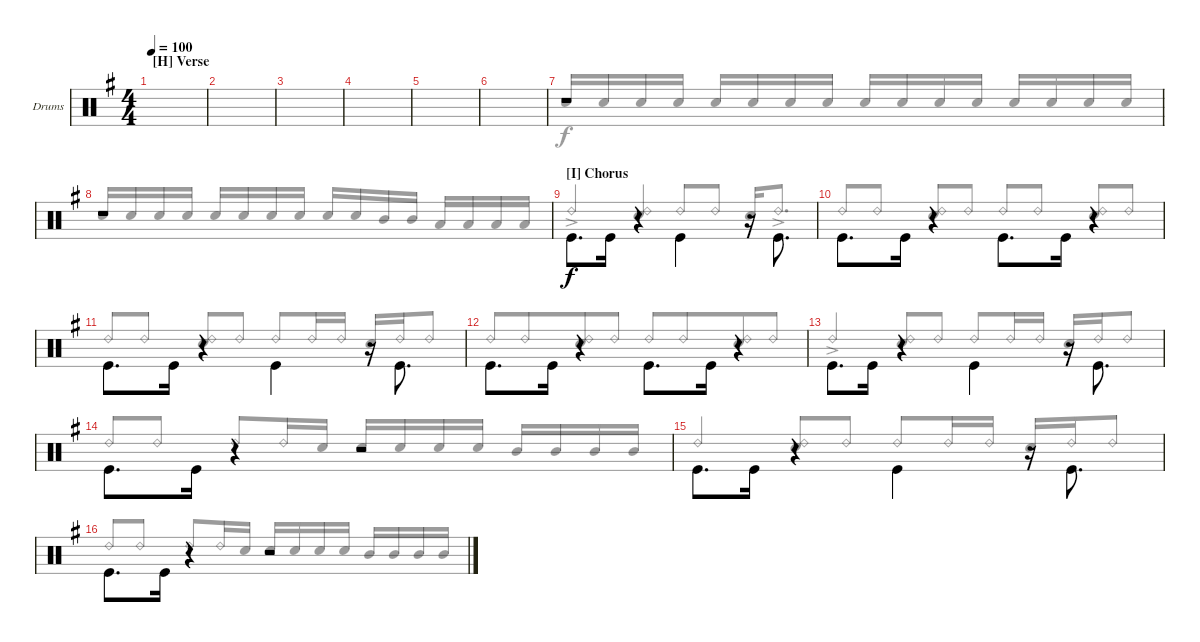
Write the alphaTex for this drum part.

\defaultSystemsLayout 4
\bracketExtendMode groupsimilarinstruments
\firstSystemTrackNameOrientation horizontal
\otherSystemsTrackNameOrientation horizontal
\track ("Drumkit" "Drums") {instrument percussion}
\staff {score}
\articulation defaults
\voice
\ts (4 4)
\section ("H" "Verse")
\scale
0.5
\tempo 100
\accidentals auto
\clef neutral
\ottava regular
\simile none
\scale
1.04288
\ks g
|
\scale
0.5
\scale
0.957125 |
\scale
0.5
\scale
1.04288 |
\scale
0.5
\scale
0.957125 |
\scale
0.5
\scale
1.04288 |
\scale
0.5
\scale
0.957125 |
\scale
0.5
\scale
1.04288 r.1 |
\scale
0.5
\scale
0.957125 r.1 |
\section ("I" "Chorus")
\scale
0.5
\scale
1.04288 "Kick (hit)".8{d beam invert} "Kick (hit)".16 r.4{beam invert} "Kick (hit)".4{beam invert} r.16{beam invert} "Kick (hit)".8{d beam invert} |
\scale
0.5
\scale
0.957125 "Kick (hit)".8{d beam invert} "Kick (hit)".16 r.4{beam invert} "Kick (hit)".8{d beam invert} "Kick (hit)".16 r.4{beam invert} |
\scale
0.5
\scale
1.04288 "Kick (hit)".8{d beam invert} "Kick (hit)".16 r.4{beam invert} "Kick (hit)".4{beam invert} r.16{beam invert} "Kick (hit)".8{d beam invert} |
\scale
0.5
\scale
0.957125 "Kick (hit)".8{d beam invert} "Kick (hit)".16 r.4{beam invert} "Kick (hit)".8{d beam invert} "Kick (hit)".16 r.4{beam invert} |
\scale
0.5
\scale
1.04288 "Kick (hit)".8{d beam invert} "Kick (hit)".16 r.4{beam invert} "Kick (hit)".4{beam invert} r.16{beam invert} "Kick (hit)".8{d beam invert} |
\scale
0.5
\scale
0.957125 "Kick (hit)".8{d beam invert} "Kick (hit)".16 r.4{beam invert} r.2 |
\scale
0.5
\scale
1.04288 "Kick (hit)".8{d beam invert} "Kick (hit)".16 r.4{beam invert} "Kick (hit)".4{beam invert} r.16{beam invert} "Kick (hit)".8{d beam invert} |
\scale
0.5
\scale
0.957125 "Kick (hit)".8{d beam invert} "Kick (hit)".16 r.4{beam invert} r.2
\voice
\clef neutral
\ottava regular
\simile none
\scale
1.04288
\ks g
|
\scale
0.957125 |
\scale
1.04288 |
\scale
0.957125 |
\scale
1.04288 |
\scale
0.957125 |
\scale
1.04288 "Snare (hit) 2".16{beam invert} "Snare (hit) 2".16 "Snare (hit) 2".16 "Snare (hit) 2".16 "Snare (hit) 2".16{beam invert} "Snare (hit) 2".16 "Snare (hit) 2".16 "Snare (hit) 2".16 "Snare (hit) 2".16{beam invert} "Snare (hit) 2".16 "Snare (hit) 2".16 "Snare (hit) 2".16 "Snare (hit) 2".16{beam invert} "Snare (hit) 2".16 "Snare (hit) 2".16 "Snare (hit) 2".16 |
\scale
0.957125 "Snare (hit) 2".16{beam invert} "Snare (hit) 2".16 "Snare (hit) 2".16 "Snare (hit) 2".16 "Snare (hit) 2".16{beam invert} "Snare (hit) 2".16 "Snare (hit) 2".16 "Snare (hit) 2".16 "Snare (hit) 2".16{beam invert} "Snare (hit) 2".16 "Mid Tom (hit)".16 "Mid Tom (hit)".16 "Low Tom (hit)".16{beam invert} "Low Tom (hit)".16 "Low Tom (hit)".16 "Low Tom (hit)".16 |
\scale
1.04288 "Ride (bell) 2"{ac}.4{beam invert} ("Ride (bell) 2" "Snare (hit) 2").4{beam invert} "Ride (bell) 2".8{beam invert} "Ride (bell) 2".8 "Snare (hit) 2".16{beam invert} "Ride (bell) 2"{ac}.8{d} |
\scale
0.957125 "Ride (bell) 2".8 "Ride (bell) 2".8{beam invert} ("Ride (bell) 2" "Snare (hit) 2").8{beam invert} "Ride (bell) 2".8 "Ride (bell) 2".8{beam invert} "Ride (bell) 2".8 ("Ride (bell) 2" "Snare (hit) 2").8{beam invert} "Ride (bell) 2".8 |
\scale
1.04288 "Ride (bell) 2".8 "Ride (bell) 2".8{beam invert} ("Ride (bell) 2" "Snare (hit) 2").8{beam invert} "Ride (bell) 2".8 "Ride (bell) 2".8{beam invert} "Ride (bell) 2".16 "Ride (bell) 2".16 "Snare (hit) 2".16{beam invert} "Ride (bell) 2".16 "Ride (bell) 2".8 |
\scale
0.957125 "Ride (bell) 2".8{beam invert beam merge} "Ride (bell) 2".8{beam merge} ("Ride (bell) 2" "Snare (hit) 2").8{beam merge} "Ride (bell) 2".8{beam split} "Ride (bell) 2".8{beam invert beam merge} "Ride (bell) 2".8{beam merge} ("Ride (bell) 2" "Snare (hit) 2").8{beam merge} "Ride (bell) 2".8{beam merge} |
\scale
1.04288 "Ride (bell) 2"{ac}.4{beam invert} ("Ride (bell) 2" "Snare (hit) 2").8 "Ride (bell) 2".8{beam invert} "Ride (bell) 2".8{beam invert} "Ride (bell) 2".16 "Ride (bell) 2".16 "Snare (hit) 2".16{beam invert} "Ride (bell) 2".16{beam invert} "Ride (bell) 2".8{beam invert} |
\scale
0.957125 "Ride (bell) 2".8 "Ride (bell) 2".8{beam invert} "Ride (bell) 2".8{beam invert} "Ride (bell) 2".16 "Snare (hit) 2".16 "Snare (hit) 2".16{beam invert} "Snare (hit) 2".16 "Snare (hit) 2".16 "Snare (hit) 2".16 "Mid Tom (hit)".16{beam invert} "Mid Tom (hit)".16 "Mid Tom (hit)".16 "Mid Tom (hit)".16 |
\scale
1.04288 "Ride (bell) 2".4{beam invert} ("Ride (bell) 2" "Snare (hit) 2").8 "Ride (bell) 2".8{beam invert} "Ride (bell) 2".8{beam invert} "Ride (bell) 2".16 "Ride (bell) 2".16 "Snare (hit) 2".16{beam invert} "Ride (bell) 2".16{beam invert} "Ride (bell) 2".8{beam invert} |
\scale
0.957125 "Ride (bell) 2".8 "Ride (bell) 2".8{beam invert} "Ride (bell) 2".8{beam invert} "Ride (bell) 2".16 "Snare (hit) 2".16 "Snare (hit) 2".16{beam invert} "Snare (hit) 2".16 "Snare (hit) 2".16 "Snare (hit) 2".16 "Mid Tom (hit)".16{beam invert} "Mid Tom (hit)".16 "Mid Tom (hit)".16 "Mid Tom (hit)".16
